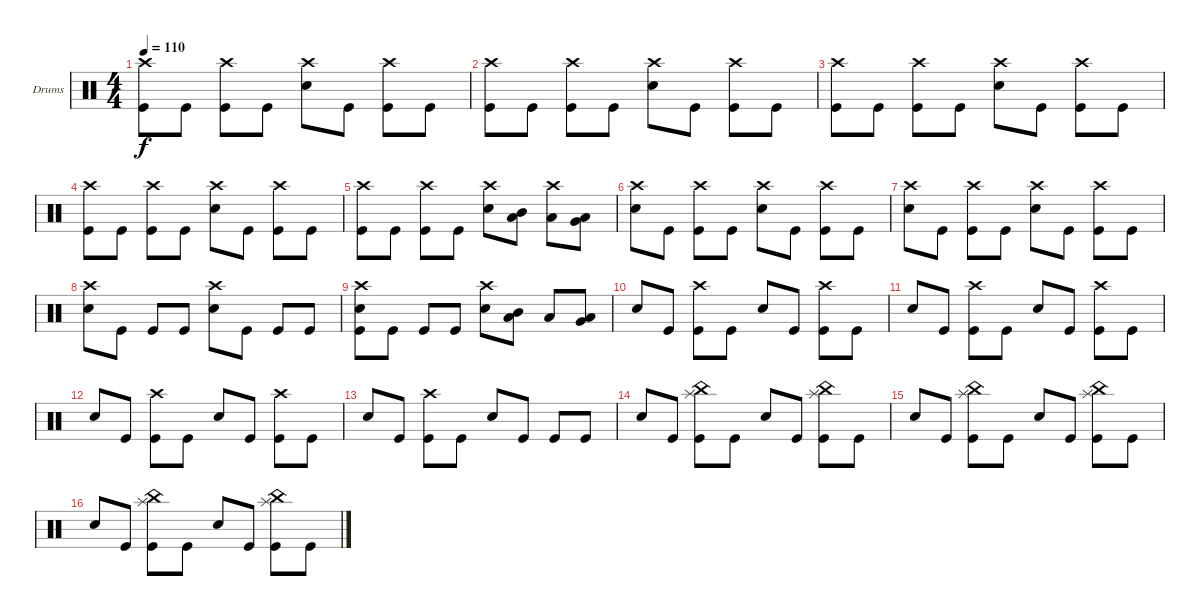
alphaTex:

\defaultSystemsLayout 4
\bracketExtendMode groupsimilarinstruments
\firstSystemTrackNameOrientation horizontal
\otherSystemsTrackNameOrientation horizontal
\track ("Drumkit" "Drums") {instrument percussion}
\staff {score}
\articulation defaults
\ts (4 4)
\tempo 110
\clef neutral
\scale
0.333333
\ks c
("Crash high (hit)" "Kick (hit)").8{dy f} "Kick (hit)".8 ("Crash high (hit)" "Kick (hit)").8 "Kick (hit)".8 ("Crash high (hit)" "Snare (hit) 2").8 "Kick (hit)".8 ("Crash high (hit)" "Kick (hit)").8 "Kick (hit)".8 |
\scale
0.333333 ("Crash high (hit)" "Kick (hit)").8 "Kick (hit)".8 ("Crash high (hit)" "Kick (hit)").8 "Kick (hit)".8 ("Crash high (hit)" "Snare (hit) 2").8 "Kick (hit)".8 ("Crash high (hit)" "Kick (hit)").8 "Kick (hit)".8 |
\scale
0.333333 ("Crash high (hit)" "Kick (hit)").8 "Kick (hit)".8 ("Crash high (hit)" "Kick (hit)").8 "Kick (hit)".8 ("Crash high (hit)" "Snare (hit) 2").8 "Kick (hit)".8 ("Crash high (hit)" "Kick (hit)").8 "Kick (hit)".8 |
\scale
0.333333 ("Crash high (hit)" "Kick (hit)").8 "Kick (hit)".8 ("Crash high (hit)" "Kick (hit)").8 "Kick (hit)".8 ("Crash high (hit)" "Snare (hit) 2").8 "Kick (hit)".8 ("Crash high (hit)" "Kick (hit)").8 "Kick (hit)".8 |
\scale
0.333333 ("Crash high (hit)" "Kick (hit)").8 "Kick (hit)".8 ("Crash high (hit)" "Kick (hit)").8 "Kick (hit)".8 ("Crash high (hit)" "Snare (hit) 2").8 ("Mid Tom (hit)" "Low Tom (hit)").8 ("Crash high (hit)" "Low Tom (hit)").8 ("Low Tom (hit)" "Very Low Tom (hit)").8 |
\scale
0.333333 ("Crash high (hit)" "Snare (hit) 2").8 "Kick (hit)".8 ("Crash high (hit)" "Kick (hit)").8 "Kick (hit)".8 ("Crash high (hit)" "Snare (hit) 2").8 "Kick (hit)".8 ("Crash high (hit)" "Kick (hit)").8 "Kick (hit)".8 |
\scale
0.333333 ("Crash high (hit)" "Snare (hit) 2").8 "Kick (hit)".8 ("Crash high (hit)" "Kick (hit)").8 "Kick (hit)".8 ("Crash high (hit)" "Snare (hit) 2").8 "Kick (hit)".8 ("Crash high (hit)" "Kick (hit)").8 "Kick (hit)".8 |
\scale
0.333333 ("Crash high (hit)" "Snare (hit) 2").8 "Kick (hit)".8 "Kick (hit)".8 "Kick (hit)".8 ("Crash high (hit)" "Snare (hit) 2").8 "Kick (hit)".8 "Kick (hit)".8 "Kick (hit)".8 |
\scale
0.333333 ("Crash high (hit)" "Snare (hit) 2" "Kick (hit)").8 "Kick (hit)".8 "Kick (hit)".8 "Kick (hit)".8 ("Crash high (hit)" "Snare (hit) 2").8 ("Mid Tom (hit)" "Low Tom (hit)").8 "Low Tom (hit)".8 ("Low Tom (hit)" "Very Low Tom (hit)").8 |
\scale
0.333333 "Snare (hit) 2".8 "Kick (hit)".8 ("Crash high (hit)" "Kick (hit)").8 "Kick (hit)".8 "Snare (hit) 2".8 "Kick (hit)".8 ("Crash high (hit)" "Kick (hit)").8 "Kick (hit)".8 |
\scale
0.333333 "Snare (hit) 2".8 "Kick (hit)".8 ("Crash high (hit)" "Kick (hit)").8 "Kick (hit)".8 "Snare (hit) 2".8 "Kick (hit)".8 ("Crash high (hit)" "Kick (hit)").8 "Kick (hit)".8 |
\scale
0.333333 "Snare (hit) 2".8 "Kick (hit)".8 ("Crash high (hit)" "Kick (hit)").8 "Kick (hit)".8 "Snare (hit) 2".8 "Kick (hit)".8 ("Crash high (hit)" "Kick (hit)").8 "Kick (hit)".8 |
\scale
0.333333 "Snare (hit) 2".8 "Kick (hit)".8 ("Crash high (hit)" "Kick (hit)").8 "Kick (hit)".8 "Snare (hit) 2".8 "Kick (hit)".8 "Kick (hit)".8 "Kick (hit)".8 |
\scale
0.333333 "Snare (hit) 2".8 "Kick (hit)".8 ("Splash (hit)" "China (hit)" "Kick (hit)").8 "Kick (hit)".8 "Snare (hit) 2".8 "Kick (hit)".8 ("Splash (hit)" "China (hit)" "Kick (hit)").8 "Kick (hit)".8 |
\scale
0.333333 "Snare (hit) 2".8 "Kick (hit)".8 ("Splash (hit)" "China (hit)" "Kick (hit)").8 "Kick (hit)".8 "Snare (hit) 2".8 "Kick (hit)".8 ("Splash (hit)" "China (hit)" "Kick (hit)").8 "Kick (hit)".8 |
\scale
0.333333 "Snare (hit) 2".8 "Kick (hit)".8 ("Splash (hit)" "China (hit)" "Kick (hit)").8 "Kick (hit)".8 "Snare (hit) 2".8 "Kick (hit)".8 ("Splash (hit)" "China (hit)" "Kick (hit)").8 "Kick (hit)".8
